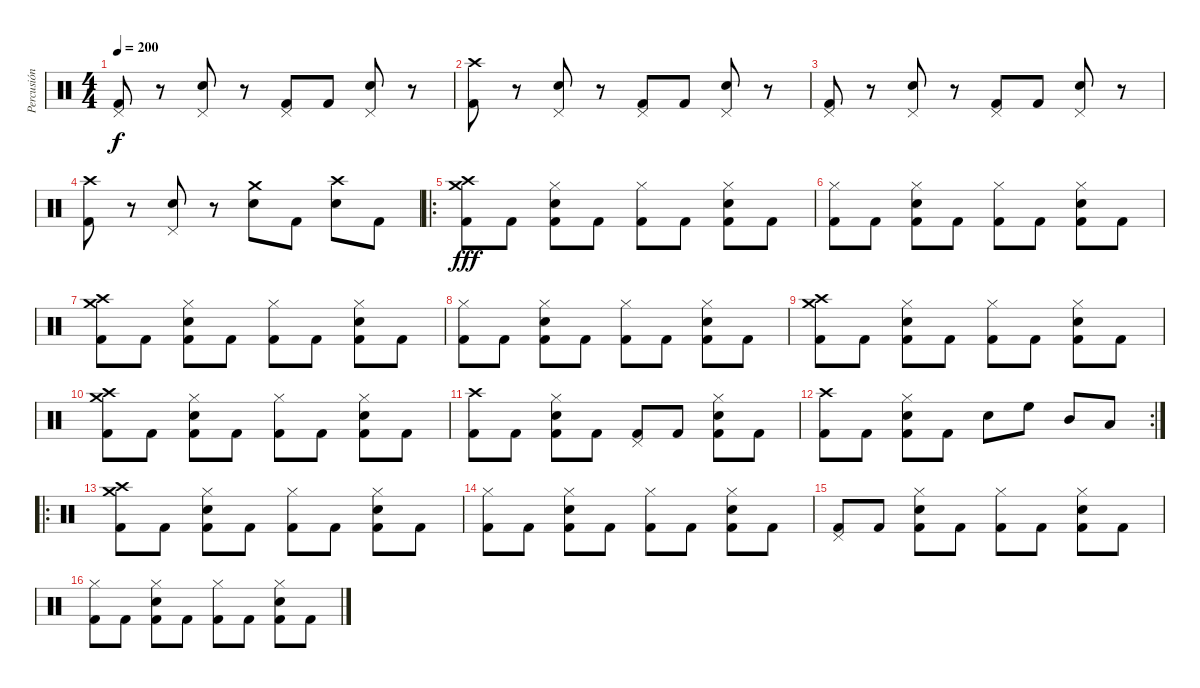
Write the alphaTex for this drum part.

\track ("Percusión" "Percusión") {instrument percussion}
\staff {score}
\articulation defaults
\ts (4 4)
\tempo 200
\clef neutral
\ks c
("Pedal Hi-Hat (hit)" "Kick (hit) 2").8{dy f} r.8 ("Pedal Hi-Hat (hit)" "Electric Snare (hit)").8 r.8 ("Pedal Hi-Hat (hit)" "Kick (hit) 2").8 "Kick (hit) 2".8 ("Pedal Hi-Hat (hit)" "Electric Snare (hit)").8 r.8 |
("Crash high (hit)" "Kick (hit) 2").8 r.8 ("Pedal Hi-Hat (hit)" "Electric Snare (hit)").8 r.8 ("Pedal Hi-Hat (hit)" "Kick (hit) 2").8 "Kick (hit) 2".8 ("Pedal Hi-Hat (hit)" "Electric Snare (hit)").8 r.8 |
("Pedal Hi-Hat (hit)" "Kick (hit) 2").8 r.8 ("Pedal Hi-Hat (hit)" "Electric Snare (hit)").8 r.8 ("Pedal Hi-Hat (hit)" "Kick (hit) 2").8 "Kick (hit) 2".8 ("Pedal Hi-Hat (hit)" "Electric Snare (hit)").8 r.8 |
("Crash high (hit)" "Kick (hit) 2").8 r.8 ("Pedal Hi-Hat (hit)" "Electric Snare (hit)").8 r.8 ("Crash medium (hit)" "Electric Snare (hit)").8 "Kick (hit) 2".8 ("Crash high (hit)" "Electric Snare (hit)").8 "Kick (hit) 2".8 |
\ro
("Crash high (hit)" "Crash medium (hit)" "Kick (hit) 2").8{dy fff} "Kick (hit) 2".8 ("Hi-Hat (closed)" "Electric Snare (hit)" "Kick (hit) 2").8 "Kick (hit) 2".8 ("Hi-Hat (closed)" "Kick (hit) 2").8 "Kick (hit) 2".8 ("Hi-Hat (closed)" "Electric Snare (hit)" "Kick (hit) 2").8 "Kick (hit) 2".8 |
("Hi-Hat (closed)" "Kick (hit) 2").8 "Kick (hit) 2".8 ("Hi-Hat (closed)" "Electric Snare (hit)" "Kick (hit) 2").8 "Kick (hit) 2".8 ("Hi-Hat (closed)" "Kick (hit) 2").8 "Kick (hit) 2".8 ("Hi-Hat (closed)" "Electric Snare (hit)" "Kick (hit) 2").8 "Kick (hit) 2".8 |
("Crash high (hit)" "Crash medium (hit)" "Kick (hit) 2").8 "Kick (hit) 2".8 ("Hi-Hat (closed)" "Electric Snare (hit)" "Kick (hit) 2").8 "Kick (hit) 2".8 ("Hi-Hat (closed)" "Kick (hit) 2").8 "Kick (hit) 2".8 ("Hi-Hat (closed)" "Electric Snare (hit)" "Kick (hit) 2").8 "Kick (hit) 2".8 |
("Hi-Hat (closed)" "Kick (hit) 2").8 "Kick (hit) 2".8 ("Hi-Hat (closed)" "Electric Snare (hit)" "Kick (hit) 2").8 "Kick (hit) 2".8 ("Hi-Hat (closed)" "Kick (hit) 2").8 "Kick (hit) 2".8 ("Hi-Hat (closed)" "Electric Snare (hit)" "Kick (hit) 2").8 "Kick (hit) 2".8 |
("Crash high (hit)" "Crash medium (hit)" "Kick (hit) 2").8 "Kick (hit) 2".8 ("Hi-Hat (closed)" "Electric Snare (hit)" "Kick (hit) 2").8 "Kick (hit) 2".8 ("Hi-Hat (closed)" "Kick (hit) 2").8 "Kick (hit) 2".8 ("Hi-Hat (closed)" "Electric Snare (hit)" "Kick (hit) 2").8 "Kick (hit) 2".8 |
("Crash high (hit)" "Crash medium (hit)" "Kick (hit) 2").8 "Kick (hit) 2".8 ("Hi-Hat (closed)" "Electric Snare (hit)" "Kick (hit) 2").8 "Kick (hit) 2".8 ("Hi-Hat (closed)" "Kick (hit) 2").8 "Kick (hit) 2".8 ("Hi-Hat (closed)" "Electric Snare (hit)" "Kick (hit) 2").8 "Kick (hit) 2".8 |
("Crash high (hit)" "Kick (hit) 2").8 "Kick (hit) 2".8 ("Hi-Hat (closed)" "Electric Snare (hit)" "Kick (hit) 2").8 "Kick (hit) 2".8 ("Pedal Hi-Hat (hit)" "Kick (hit) 2").8 "Kick (hit) 2".8 ("Hi-Hat (closed)" "Electric Snare (hit)" "Kick (hit) 2").8 "Kick (hit) 2".8 |
\rc 2
("Crash high (hit)" "Kick (hit) 2").8 "Kick (hit) 2".8 ("Hi-Hat (closed)" "Electric Snare (hit)" "Kick (hit) 2").8 "Kick (hit) 2".8 "Electric Snare (hit)".8 "High Floor Tom (hit)".8 "Mid Tom (hit)".8 "Low Tom (hit)".8 |
\ro
("Crash high (hit)" "Crash medium (hit)" "Kick (hit) 2").8 "Kick (hit) 2".8 ("Hi-Hat (closed)" "Electric Snare (hit)" "Kick (hit) 2").8 "Kick (hit) 2".8 ("Hi-Hat (closed)" "Kick (hit) 2").8 "Kick (hit) 2".8 ("Hi-Hat (closed)" "Electric Snare (hit)" "Kick (hit) 2").8 "Kick (hit) 2".8 |
("Hi-Hat (closed)" "Kick (hit) 2").8 "Kick (hit) 2".8 ("Hi-Hat (closed)" "Electric Snare (hit)" "Kick (hit) 2").8 "Kick (hit) 2".8 ("Hi-Hat (closed)" "Kick (hit) 2").8 "Kick (hit) 2".8 ("Hi-Hat (closed)" "Electric Snare (hit)" "Kick (hit) 2").8 "Kick (hit) 2".8 |
("Pedal Hi-Hat (hit)" "Kick (hit) 2").8 "Kick (hit) 2".8 ("Hi-Hat (closed)" "Electric Snare (hit)" "Kick (hit) 2").8 "Kick (hit) 2".8 ("Hi-Hat (closed)" "Kick (hit) 2").8 "Kick (hit) 2".8 ("Hi-Hat (closed)" "Electric Snare (hit)" "Kick (hit) 2").8 "Kick (hit) 2".8 |
("Hi-Hat (closed)" "Kick (hit) 2").8 "Kick (hit) 2".8 ("Hi-Hat (closed)" "Electric Snare (hit)" "Kick (hit) 2").8 "Kick (hit) 2".8 ("Hi-Hat (closed)" "Kick (hit) 2").8 "Kick (hit) 2".8 ("Hi-Hat (closed)" "Electric Snare (hit)" "Kick (hit) 2").8 "Kick (hit) 2".8
